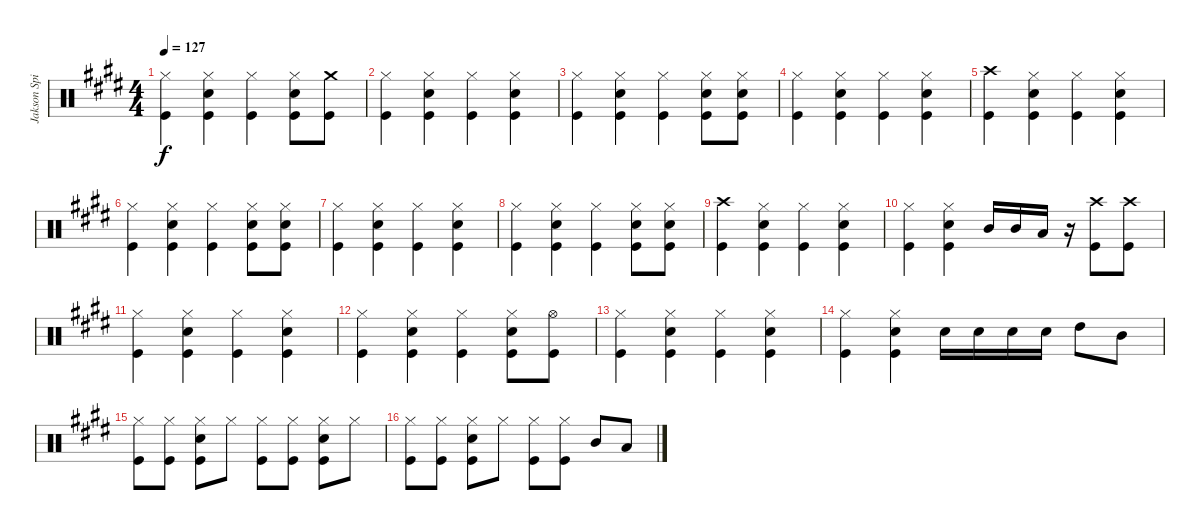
\track ("Jakson Spiers Drums" "Jakson Spi") {instrument percussion}
\staff {score}
\articulation defaults
\ts (4 4)
\tempo 127
\clef neutral
\ks e
("Hi-Hat (closed)" "Kick (hit)").4{dy f} ("Hi-Hat (closed)" "Snare (hit) 2" "Kick (hit)").4 ("Hi-Hat (closed)" "Kick (hit)").4 ("Hi-Hat (closed)" "Snare (hit) 2" "Kick (hit)").8 ("Crash medium (hit)" "Kick (hit)").8 |
("Hi-Hat (closed)" "Kick (hit)").4 ("Hi-Hat (closed)" "Snare (hit) 2" "Kick (hit)").4 ("Hi-Hat (closed)" "Kick (hit)").4 ("Hi-Hat (closed)" "Snare (hit) 2" "Kick (hit)").4 |
("Hi-Hat (closed)" "Kick (hit)").4 ("Hi-Hat (closed)" "Snare (hit) 2" "Kick (hit)").4 ("Hi-Hat (closed)" "Kick (hit)").4 ("Hi-Hat (closed)" "Snare (hit) 2" "Kick (hit)").8 ("Hi-Hat (closed)" "Snare (hit) 2" "Kick (hit)").8 |
("Hi-Hat (closed)" "Kick (hit)").4 ("Hi-Hat (closed)" "Snare (hit) 2" "Kick (hit)").4 ("Hi-Hat (closed)" "Kick (hit)").4 ("Hi-Hat (closed)" "Snare (hit) 2" "Kick (hit)").4 |
("Crash high (hit)" "Kick (hit)").4 ("Hi-Hat (closed)" "Snare (hit) 2" "Kick (hit)").4 ("Hi-Hat (closed)" "Kick (hit)").4 ("Hi-Hat (closed)" "Snare (hit) 2" "Kick (hit)").4 |
("Hi-Hat (closed)" "Kick (hit)").4 ("Hi-Hat (closed)" "Snare (hit) 2" "Kick (hit)").4 ("Hi-Hat (closed)" "Kick (hit)").4 ("Hi-Hat (closed)" "Snare (hit) 2" "Kick (hit)").8 ("Hi-Hat (closed)" "Snare (hit) 2" "Kick (hit)").8 |
("Hi-Hat (closed)" "Kick (hit)").4 ("Hi-Hat (closed)" "Snare (hit) 2" "Kick (hit)").4 ("Hi-Hat (closed)" "Kick (hit)").4 ("Hi-Hat (closed)" "Snare (hit) 2" "Kick (hit)").4 |
("Hi-Hat (closed)" "Kick (hit)").4 ("Hi-Hat (closed)" "Snare (hit) 2" "Kick (hit)").4 ("Hi-Hat (closed)" "Kick (hit)").4 ("Hi-Hat (closed)" "Snare (hit) 2" "Kick (hit)").8 ("Hi-Hat (closed)" "Snare (hit) 2" "Kick (hit)").8 |
("Crash high (hit)" "Kick (hit)").4 ("Hi-Hat (closed)" "Snare (hit) 2" "Kick (hit)").4 ("Hi-Hat (closed)" "Kick (hit)").4 ("Hi-Hat (closed)" "Snare (hit) 2" "Kick (hit)").4 |
("Hi-Hat (closed)" "Kick (hit)").4 ("Hi-Hat (closed)" "Snare (hit) 2" "Kick (hit)").4 "Mid Tom (hit)".16 "Mid Tom (hit)".16 "Low Tom (hit)".16 r.16 ("Crash high (hit)" "Kick (hit)").8 ("Crash high (hit)" "Kick (hit)").8 |
("Hi-Hat (closed)" "Kick (hit)").4 ("Hi-Hat (closed)" "Snare (hit) 2" "Kick (hit)").4 ("Hi-Hat (closed)" "Kick (hit)").4 ("Hi-Hat (closed)" "Snare (hit) 2" "Kick (hit)").4 |
("Hi-Hat (closed)" "Kick (hit)").4 ("Hi-Hat (closed)" "Snare (hit) 2" "Kick (hit)").4 ("Hi-Hat (closed)" "Kick (hit)").4 ("Hi-Hat (closed)" "Snare (hit) 2" "Kick (hit)").8 ("Hi-Hat (open)" "Kick (hit)").8 |
("Hi-Hat (closed)" "Kick (hit)").4 ("Hi-Hat (closed)" "Snare (hit) 2" "Kick (hit)").4 ("Hi-Hat (closed)" "Kick (hit)").4 ("Hi-Hat (closed)" "Snare (hit) 2" "Kick (hit)").4 |
("Hi-Hat (closed)" "Kick (hit)").4 ("Hi-Hat (closed)" "Snare (hit) 2" "Kick (hit)").4 "Snare (hit) 2".16 "Snare (hit) 2".16 "Snare (hit) 2".16 "Snare (hit) 2".16 "High Tom (hit)".8 "Mid Tom (hit)".8 |
("Hi-Hat (closed)" "Kick (hit)").8 ("Hi-Hat (closed)" "Kick (hit)").8 ("Hi-Hat (closed)" "Snare (hit) 2" "Kick (hit)").8 "Hi-Hat (closed)".8 ("Hi-Hat (closed)" "Kick (hit)").8 ("Hi-Hat (closed)" "Kick (hit)").8 ("Hi-Hat (closed)" "Snare (hit) 2" "Kick (hit)").8 "Hi-Hat (closed)".8 |
("Hi-Hat (closed)" "Kick (hit)").8 ("Hi-Hat (closed)" "Kick (hit)").8 ("Hi-Hat (closed)" "Snare (hit) 2" "Kick (hit)").8 "Hi-Hat (closed)".8 ("Hi-Hat (closed)" "Kick (hit)").8 ("Hi-Hat (closed)" "Kick (hit)").8 "Mid Tom (hit)".8 "Low Tom (hit)".8
